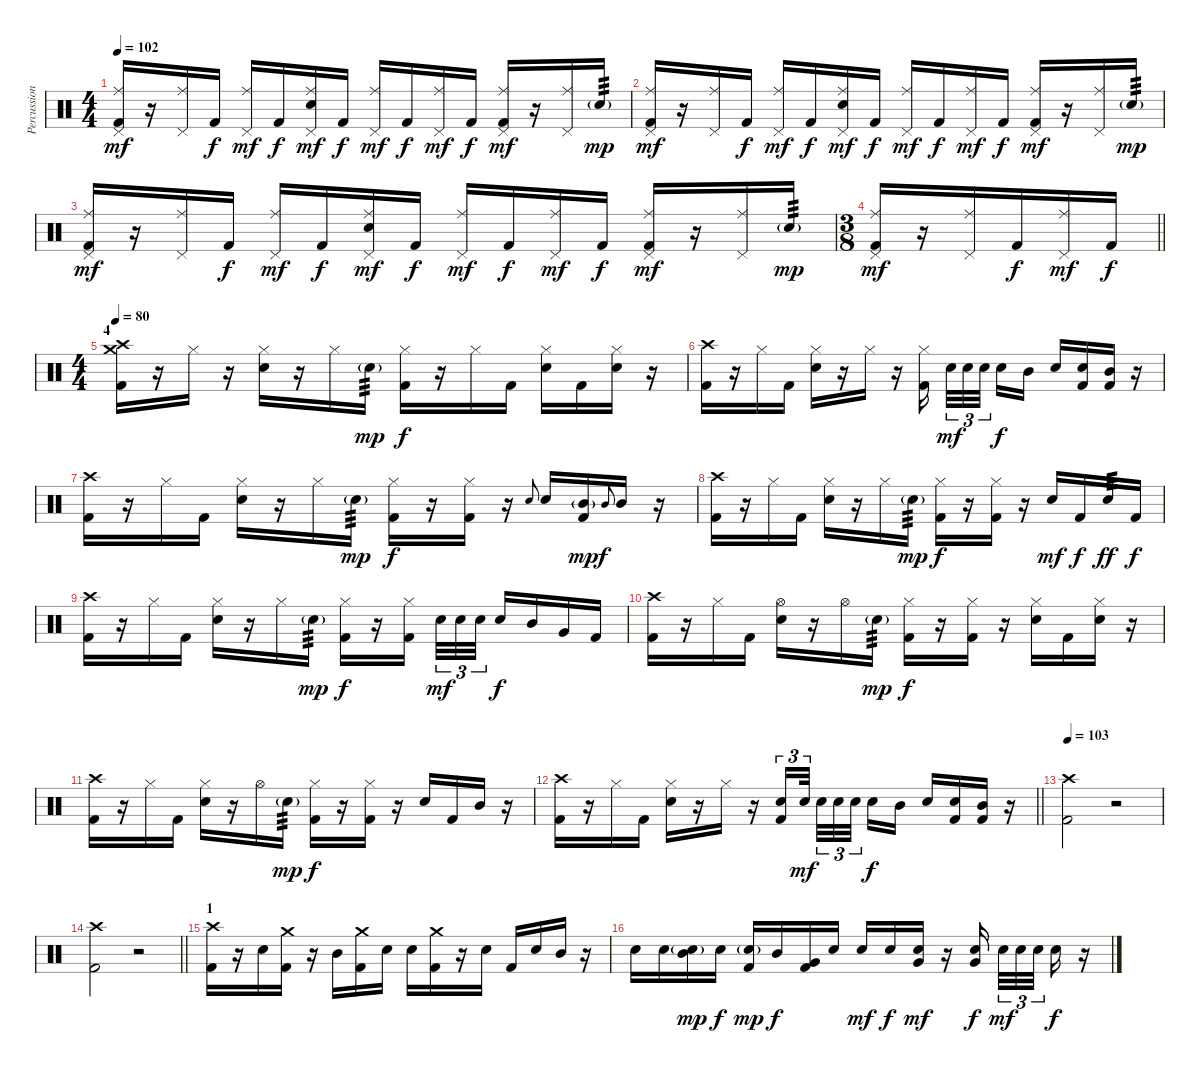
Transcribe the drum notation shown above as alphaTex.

\track ("Percussion" "Percussion") {instrument percussion}
\staff {score}
\articulation defaults
\ts (4 4)
\tempo 102
\clef neutral
\ks c
("Ride (middle)" "Pedal Hi-Hat (hit)" "Kick (hit) 2").16{dy mf} r.16 ("Ride (middle)" "Pedal Hi-Hat (hit)").16 "Kick (hit) 2".16{dy f} ("Ride (middle)" "Pedal Hi-Hat (hit)").16{dy mf} "Kick (hit) 2".16{dy f} ("Ride (middle)" "Pedal Hi-Hat (hit)" "Snare (hit) 2").16{dy mf} "Kick (hit) 2".16{dy f} ("Ride (middle)" "Pedal Hi-Hat (hit)").16{dy mf} "Kick (hit) 2".16{dy f} ("Ride (middle)" "Pedal Hi-Hat (hit)").16{dy mf} "Kick (hit) 2".16{dy f} ("Ride (middle)" "Pedal Hi-Hat (hit)" "Kick (hit) 2").16{dy mf} r.16 ("Ride (middle)" "Pedal Hi-Hat (hit)").16 "Snare (hit) 2"{g}.16{tp 3 dy mp} |
("Ride (middle)" "Pedal Hi-Hat (hit)" "Kick (hit) 2").16{dy mf} r.16 ("Ride (middle)" "Pedal Hi-Hat (hit)").16 "Kick (hit) 2".16{dy f} ("Ride (middle)" "Pedal Hi-Hat (hit)").16{dy mf} "Kick (hit) 2".16{dy f} ("Ride (middle)" "Pedal Hi-Hat (hit)" "Snare (hit) 2").16{dy mf} "Kick (hit) 2".16{dy f} ("Ride (middle)" "Pedal Hi-Hat (hit)").16{dy mf} "Kick (hit) 2".16{dy f} ("Ride (middle)" "Pedal Hi-Hat (hit)").16{dy mf} "Kick (hit) 2".16{dy f} ("Ride (middle)" "Pedal Hi-Hat (hit)" "Kick (hit) 2").16{dy mf} r.16 ("Ride (middle)" "Pedal Hi-Hat (hit)").16 "Snare (hit) 2"{g}.16{tp 3 dy mp} |
("Ride (middle)" "Pedal Hi-Hat (hit)" "Kick (hit) 2").16{dy mf} r.16 ("Ride (middle)" "Pedal Hi-Hat (hit)").16 "Kick (hit) 2".16{dy f} ("Ride (middle)" "Pedal Hi-Hat (hit)").16{dy mf} "Kick (hit) 2".16{dy f} ("Ride (middle)" "Pedal Hi-Hat (hit)" "Snare (hit) 2").16{dy mf} "Kick (hit) 2".16{dy f} ("Ride (middle)" "Pedal Hi-Hat (hit)").16{dy mf} "Kick (hit) 2".16{dy f} ("Ride (middle)" "Pedal Hi-Hat (hit)").16{dy mf} "Kick (hit) 2".16{dy f} ("Ride (middle)" "Pedal Hi-Hat (hit)" "Kick (hit) 2").16{dy mf} r.16 ("Ride (middle)" "Pedal Hi-Hat (hit)").16 "Snare (hit) 2"{g}.16{tp 3 dy mp} |
\ts (3 8)
\barLineRight lightlight
("Ride (middle)" "Pedal Hi-Hat (hit)" "Kick (hit) 2").16{dy mf} r.16 ("Ride (middle)" "Pedal Hi-Hat (hit)").16 "Kick (hit) 2".16{dy f} ("Ride (middle)" "Pedal Hi-Hat (hit)").16{dy mf} "Kick (hit) 2".16{dy f} |
\ts (4 4)
\section ("" "4")
\tempo 80
("Crash medium (hit)" "Crash high (hit)" "Kick (hit) 2").16 r.16 "Hi-Hat (closed)".16 r.16 ("Hi-Hat (closed)" "Snare (hit) 2").16 r.16 "Hi-Hat (closed)".16 "Snare (hit) 2"{g}.16{tp 3 dy mp} ("Hi-Hat (closed)" "Kick (hit) 2").16{dy f} r.16 "Hi-Hat (closed)".16 "Kick (hit) 2".16 ("Hi-Hat (closed)" "Snare (hit) 2").16 "Kick (hit) 2".16 ("Hi-Hat (closed)" "Snare (hit) 2").16 r.16 |
("Crash high (hit)" "Kick (hit) 2").16 r.16 "Hi-Hat (closed)".16 "Kick (hit) 2".16 ("Hi-Hat (closed)" "Snare (hit) 2").16 r.16 "Hi-Hat (closed)".16 r.16 ("Hi-Hat (closed)" "Kick (hit) 2").16{beam splitsecondary} "Snare (hit) 2".32{tu (3 2) dy mf} "Snare (hit) 2".32{tu (3 2)} "Snare (hit) 2".32{tu (3 2) beam splitsecondary} "Snare (hit) 2".16{dy f} "Mid Tom (hit)".16 "Snare (hit) 2".16 ("Snare (hit) 2" "Kick (hit) 2").16 ("Mid Tom (hit)" "Kick (hit) 2").16 r.16 |
("Crash high (hit)" "Kick (hit) 2").16 r.16 "Hi-Hat (closed)".16 "Kick (hit) 2".16 ("Hi-Hat (closed)" "Snare (hit) 2").16 r.16 "Hi-Hat (closed)".16 "Snare (hit) 2"{g}.16{tp 3 dy mp} ("Hi-Hat (closed)" "Kick (hit) 2").16{dy f} r.16 ("Hi-Hat (closed)" "Kick (hit) 2").16 r.16 "Snare (hit) 2".8{gr onbeat} "Snare (hit) 2".16 ("Mid Tom (hit)"{g} "Kick (hit) 2").16{dy mp} "Mid Tom (hit)".8{gr onbeat dy f} "Mid Tom (hit)".16 r.16 |
("Crash high (hit)" "Kick (hit) 2").16 r.16 "Hi-Hat (closed)".16 "Kick (hit) 2".16 ("Hi-Hat (closed)" "Snare (hit) 2").16 r.16 "Hi-Hat (closed)".16 "Snare (hit) 2"{g}.16{tp 3 dy mp} ("Hi-Hat (closed)" "Kick (hit) 2").16{dy f} r.16 ("Hi-Hat (closed)" "Kick (hit) 2").16 r.16 "Snare (hit) 2".16{dy mf} "Kick (hit) 2".16{dy f} "Snare (hit) 2".16{tp 3 dy ff} "Kick (hit) 2".16{dy f} |
("Crash high (hit)" "Kick (hit) 2").16 r.16 "Hi-Hat (closed)".16 "Kick (hit) 2".16 ("Hi-Hat (closed)" "Snare (hit) 2").16 r.16 "Hi-Hat (closed)".16 "Snare (hit) 2"{g}.16{tp 3 dy mp} ("Hi-Hat (closed)" "Kick (hit) 2").16{dy f} r.16 ("Hi-Hat (closed)" "Kick (hit) 2").16{beam splitsecondary} "Snare (hit) 2".32{tu (3 2) dy mf} "Snare (hit) 2".32{tu (3 2)} "Snare (hit) 2".32{tu (3 2)} "Snare (hit) 2".16{dy f} "Mid Tom (hit)".16 "Very Low Tom (hit)".16 "Kick (hit) 2".16 |
("Crash high (hit)" "Kick (hit) 2").16 r.16 "Hi-Hat (closed)".16 "Kick (hit) 2".16 ("Hi-Hat (open)" "Snare (hit) 2").16 r.16 "Hi-Hat (open)".16 "Snare (hit) 2"{g}.16{tp 3 dy mp} ("Hi-Hat (closed)" "Kick (hit) 2").16{dy f} r.16 ("Hi-Hat (closed)" "Kick (hit) 2").16 r.16 ("Hi-Hat (closed)" "Snare (hit) 2").16 "Kick (hit) 2".16 ("Hi-Hat (closed)" "Snare (hit) 2").16 r.16 |
("Crash high (hit)" "Kick (hit) 2").16 r.16 "Hi-Hat (closed)".16 "Kick (hit) 2".16 ("Hi-Hat (closed)" "Snare (hit) 2").16 r.16 "Hi-Hat (open)".16 "Snare (hit) 2"{g}.16{tp 3 dy mp} ("Hi-Hat (closed)" "Kick (hit) 2").16{dy f} r.16 ("Hi-Hat (closed)" "Kick (hit) 2").16 r.16 "Snare (hit) 2".16 "Kick (hit) 2".16 "Mid Tom (hit)".16 r.16 |
\barLineRight lightlight
("Crash high (hit)" "Kick (hit) 2").16 r.16 "Hi-Hat (closed)".16 "Kick (hit) 2".16 ("Hi-Hat (closed)" "Snare (hit) 2").16 r.16 "Hi-Hat (closed)".16 r.16 ("Snare (hit) 2" "Kick (hit) 2").16{tu (3 2)} "Snare (hit) 2".32{tu (3 2) dy mf beam splitsecondary} "Snare (hit) 2".32{tu (3 2)} "Snare (hit) 2".32{tu (3 2)} "Snare (hit) 2".32{tu (3 2) beam splitsecondary} "Snare (hit) 2".16{dy f} "Mid Tom (hit)".16 "Snare (hit) 2".16 ("Snare (hit) 2" "Kick (hit) 2").16 ("Mid Tom (hit)" "Kick (hit) 2").16 r.16 |
\section ("" "")
\tempo 103
("Crash high (hit)" "Kick (hit) 2").2 r.2 |
\barLineRight lightlight
("Crash high (hit)" "Kick (hit) 2").2 r.2 |
\section ("" "1")
("Crash high (hit)" "Kick (hit) 2").16 r.16 "Snare (hit) 2".16 ("Crash medium (hit)" "Kick (hit) 2").16 r.16 "Mid Tom (hit)".16 ("Crash medium (hit)" "Kick (hit) 2").16 "Snare (hit) 2".16 "Snare (hit) 2".16 ("Crash medium (hit)" "Kick (hit) 2").16 r.16 "Snare (hit) 2".16 "Kick (hit) 2".16 "Snare (hit) 2".16 "Mid Tom (hit)".16 r.16 |
"Snare (hit) 2".16 "Snare (hit) 2".16 ("Mid Tom (hit)" "Snare (hit) 2"{g}).16{dy mp} "Snare (hit) 2".16{dy f} ("Snare (hit) 2"{g} "Kick (hit) 2").16{dy mp} "Mid Tom (hit)".16{dy f} ("Very Low Tom (hit)" "Kick (hit) 2").16 "Snare (hit) 2".16 "Snare (hit) 2".16{dy mf} "Snare (hit) 2".16{dy f} ("Snare (hit) 2" "Very Low Tom (hit)").16{dy mf} r.16 ("Snare (hit) 2" "Very Low Tom (hit)").16{dy f beam splitsecondary} "Snare (hit) 2".32{tu (3 2) dy mf} "Snare (hit) 2".32{tu (3 2)} "Snare (hit) 2".32{tu (3 2) beam splitsecondary} "Snare (hit) 2".16{dy f} r.16
